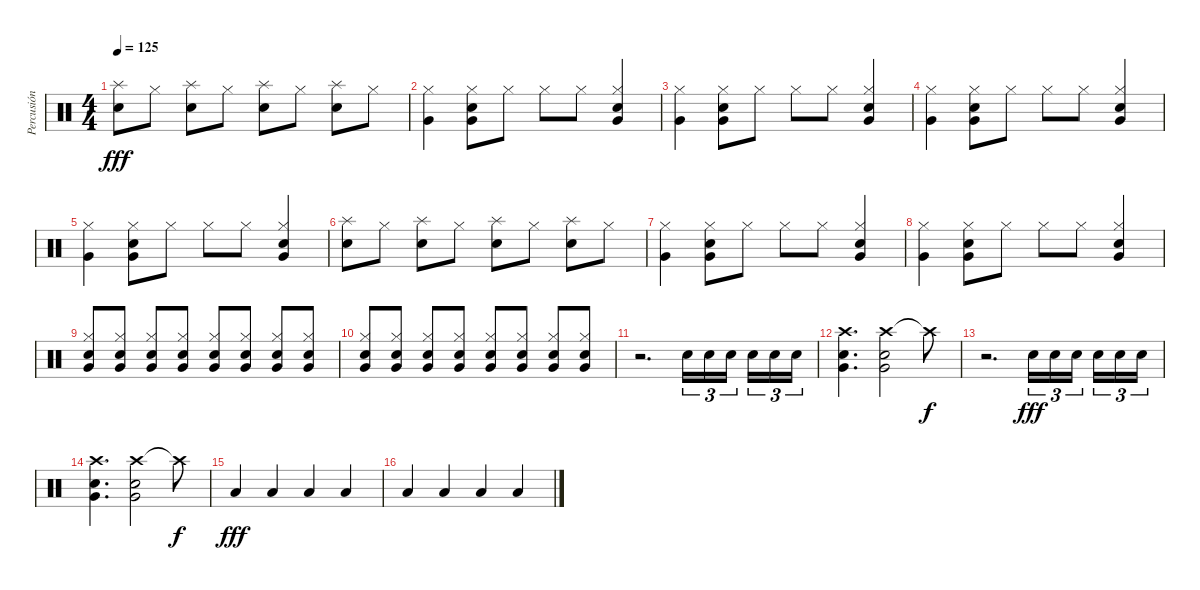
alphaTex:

\track ("Percusión" "Percusión") {instrument percussion}
\staff {score}
\articulation defaults
\ts (4 4)
\tempo 125
\clef neutral
\ks c
("Splash (hit)" "Snare (hit) 2").8{dy fff} "Hi-Hat (closed)".8 ("Splash (hit)" "Snare (hit) 2").8 "Hi-Hat (closed)".8 ("Splash (hit)" "Snare (hit) 2").8 "Hi-Hat (closed)".8 ("Splash (hit)" "Snare (hit) 2").8 "Hi-Hat (closed)".8 |
("Hi-Hat (closed)" "Very Low Tom (hit)").4 ("Hi-Hat (closed)" "Snare (hit) 2" "Very Low Tom (hit)").8 "Hi-Hat (closed)".8 "Hi-Hat (closed)".8 "Hi-Hat (closed)".8 ("Hi-Hat (closed)" "Snare (hit) 2" "Very Low Tom (hit)").4 |
("Hi-Hat (closed)" "Very Low Tom (hit)").4 ("Hi-Hat (closed)" "Snare (hit) 2" "Very Low Tom (hit)").8 "Hi-Hat (closed)".8 "Hi-Hat (closed)".8 "Hi-Hat (closed)".8 ("Hi-Hat (closed)" "Snare (hit) 2" "Very Low Tom (hit)").4 |
("Hi-Hat (closed)" "Very Low Tom (hit)").4 ("Hi-Hat (closed)" "Snare (hit) 2" "Very Low Tom (hit)").8 "Hi-Hat (closed)".8 "Hi-Hat (closed)".8 "Hi-Hat (closed)".8 ("Hi-Hat (closed)" "Snare (hit) 2" "Very Low Tom (hit)").4 |
("Hi-Hat (closed)" "Very Low Tom (hit)").4 ("Hi-Hat (closed)" "Snare (hit) 2" "Very Low Tom (hit)").8 "Hi-Hat (closed)".8 "Hi-Hat (closed)".8 "Hi-Hat (closed)".8 ("Hi-Hat (closed)" "Snare (hit) 2" "Very Low Tom (hit)").4 |
("Splash (hit)" "Snare (hit) 2").8 "Hi-Hat (closed)".8 ("Splash (hit)" "Snare (hit) 2").8 "Hi-Hat (closed)".8 ("Splash (hit)" "Snare (hit) 2").8 "Hi-Hat (closed)".8 ("Splash (hit)" "Snare (hit) 2").8 "Hi-Hat (closed)".8 |
("Hi-Hat (closed)" "Very Low Tom (hit)").4 ("Hi-Hat (closed)" "Snare (hit) 2" "Very Low Tom (hit)").8 "Hi-Hat (closed)".8 "Hi-Hat (closed)".8 "Hi-Hat (closed)".8 ("Hi-Hat (closed)" "Snare (hit) 2" "Very Low Tom (hit)").4 |
("Hi-Hat (closed)" "Very Low Tom (hit)").4 ("Hi-Hat (closed)" "Snare (hit) 2" "Very Low Tom (hit)").8 "Hi-Hat (closed)".8 "Hi-Hat (closed)".8 "Hi-Hat (closed)".8 ("Hi-Hat (closed)" "Snare (hit) 2" "Very Low Tom (hit)").4 |
("Hi-Hat (closed)" "Snare (hit) 2" "Very Low Tom (hit)").8 ("Hi-Hat (closed)" "Snare (hit) 2" "Very Low Tom (hit)").8 ("Hi-Hat (closed)" "Snare (hit) 2" "Very Low Tom (hit)").8 ("Hi-Hat (closed)" "Snare (hit) 2" "Very Low Tom (hit)").8 ("Hi-Hat (closed)" "Snare (hit) 2" "Very Low Tom (hit)").8 ("Hi-Hat (closed)" "Snare (hit) 2" "Very Low Tom (hit)").8 ("Hi-Hat (closed)" "Snare (hit) 2" "Very Low Tom (hit)").8 ("Hi-Hat (closed)" "Snare (hit) 2" "Very Low Tom (hit)").8 |
("Hi-Hat (closed)" "Snare (hit) 2" "Very Low Tom (hit)").8 ("Hi-Hat (closed)" "Snare (hit) 2" "Very Low Tom (hit)").8 ("Hi-Hat (closed)" "Snare (hit) 2" "Very Low Tom (hit)").8 ("Hi-Hat (closed)" "Snare (hit) 2" "Very Low Tom (hit)").8 ("Hi-Hat (closed)" "Snare (hit) 2" "Very Low Tom (hit)").8 ("Hi-Hat (closed)" "Snare (hit) 2" "Very Low Tom (hit)").8 ("Hi-Hat (closed)" "Snare (hit) 2" "Very Low Tom (hit)").8 ("Hi-Hat (closed)" "Snare (hit) 2" "Very Low Tom (hit)").8 |
r.2{d} "Snare (hit) 2".16{tu (3 2)} "Snare (hit) 2".16{tu (3 2)} "Snare (hit) 2".16{tu (3 2) beam splitsecondary} "Snare (hit) 2".16{tu (3 2)} "Snare (hit) 2".16{tu (3 2)} "Snare (hit) 2".16{tu (3 2)} |
("Crash high (hit)" "Snare (hit) 2" "Very Low Tom (hit)").4{d} ("Crash high (hit)" "Snare (hit) 2" "Very Low Tom (hit)").2 "Crash high (hit)"{t}.8{dy f} |
r.2{d} "Snare (hit) 2".16{tu (3 2) dy fff} "Snare (hit) 2".16{tu (3 2)} "Snare (hit) 2".16{tu (3 2) beam splitsecondary} "Snare (hit) 2".16{tu (3 2)} "Snare (hit) 2".16{tu (3 2)} "Snare (hit) 2".16{tu (3 2)} |
("Crash high (hit)" "Snare (hit) 2" "Very Low Tom (hit)").4{d} ("Crash high (hit)" "Snare (hit) 2" "Very Low Tom (hit)").2 "Crash high (hit)"{t}.8{dy f} |
"Low Floor Tom (hit)".4{dy fff} "Low Floor Tom (hit)".4 "Low Floor Tom (hit)".4 "Low Floor Tom (hit)".4 |
"Low Floor Tom (hit)".4 "Low Floor Tom (hit)".4 "Low Floor Tom (hit)".4 "Low Floor Tom (hit)".4
